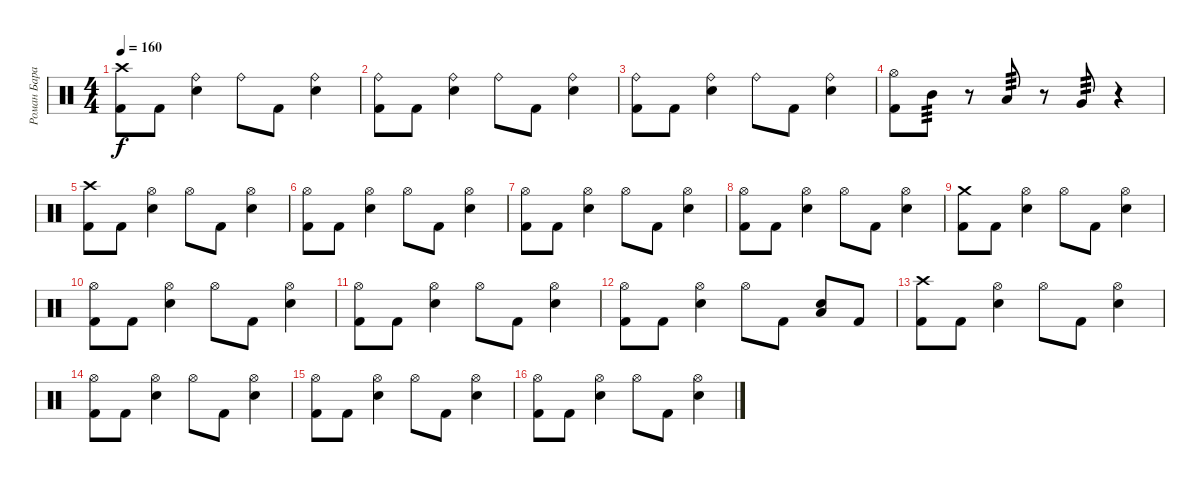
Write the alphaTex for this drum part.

\track ("Роман Баранюк" "Роман Бара") {instrument percussion}
\staff {score}
\articulation defaults
\ts (4 4)
\tempo 160
\clef neutral
\ks c
("Crash high (hit)" "Kick (hit) 2").8{dy f} "Kick (hit) 2".8 ("Ride (bell)" "Snare (hit) 2").4 "Ride (bell)".8 "Kick (hit) 2".8 ("Ride (bell)" "Snare (hit) 2").4 |
("Ride (bell)" "Kick (hit) 2").8 "Kick (hit) 2".8 ("Ride (bell)" "Snare (hit) 2").4 "Ride (bell)".8 "Kick (hit) 2".8 ("Ride (bell)" "Snare (hit) 2").4 |
("Ride (bell)" "Kick (hit) 2").8 "Kick (hit) 2".8 ("Ride (bell)" "Snare (hit) 2").4 "Ride (bell)".8 "Kick (hit) 2".8 ("Ride (bell)" "Snare (hit) 2").4 |
("Hi-Hat (open)" "Kick (hit) 2").8 "Mid Tom (hit)".8{tp 3} r.8 "Low Tom (hit)".8{tp 3} r.8 "Very Low Tom (hit)".8{tp 3} r.4 |
("Crash high (hit)" "Kick (hit) 2").8 "Kick (hit) 2".8 ("Hi-Hat (open)" "Snare (hit) 2").4 "Hi-Hat (open)".8 "Kick (hit) 2".8 ("Hi-Hat (open)" "Snare (hit) 2").4 |
("Hi-Hat (open)" "Kick (hit) 2").8 "Kick (hit) 2".8 ("Hi-Hat (open)" "Snare (hit) 2").4 "Hi-Hat (open)".8 "Kick (hit) 2".8 ("Hi-Hat (open)" "Snare (hit) 2").4 |
("Hi-Hat (open)" "Kick (hit) 2").8 "Kick (hit) 2".8 ("Hi-Hat (open)" "Snare (hit) 2").4 "Hi-Hat (open)".8 "Kick (hit) 2".8 ("Hi-Hat (open)" "Snare (hit) 2").4 |
("Hi-Hat (open)" "Kick (hit) 2").8 "Kick (hit) 2".8 ("Hi-Hat (open)" "Snare (hit) 2").4 "Hi-Hat (open)".8 "Kick (hit) 2".8 ("Hi-Hat (open)" "Snare (hit) 2").4 |
("Crash medium (hit)" "Kick (hit) 2").8 "Kick (hit) 2".8 ("Hi-Hat (open)" "Snare (hit) 2").4 "Hi-Hat (open)".8 "Kick (hit) 2".8 ("Hi-Hat (open)" "Snare (hit) 2").4 |
("Hi-Hat (open)" "Kick (hit) 2").8 "Kick (hit) 2".8 ("Hi-Hat (open)" "Snare (hit) 2").4 "Hi-Hat (open)".8 "Kick (hit) 2".8 ("Hi-Hat (open)" "Snare (hit) 2").4 |
("Hi-Hat (open)" "Kick (hit) 2").8 "Kick (hit) 2".8 ("Hi-Hat (open)" "Snare (hit) 2").4 "Hi-Hat (open)".8 "Kick (hit) 2".8 ("Hi-Hat (open)" "Snare (hit) 2").4 |
("Hi-Hat (open)" "Kick (hit) 2").8 "Kick (hit) 2".8 ("Hi-Hat (open)" "Snare (hit) 2").4 "Hi-Hat (open)".8 "Kick (hit) 2".8 ("Snare (hit) 2" "Low Tom (hit)").8 "Kick (hit) 2".8 |
("Crash high (hit)" "Kick (hit) 2").8 "Kick (hit) 2".8 ("Hi-Hat (open)" "Snare (hit) 2").4 "Hi-Hat (open)".8 "Kick (hit) 2".8 ("Hi-Hat (open)" "Snare (hit) 2").4 |
("Hi-Hat (open)" "Kick (hit) 2").8 "Kick (hit) 2".8 ("Hi-Hat (open)" "Snare (hit) 2").4 "Hi-Hat (open)".8 "Kick (hit) 2".8 ("Hi-Hat (open)" "Snare (hit) 2").4 |
("Hi-Hat (open)" "Kick (hit) 2").8 "Kick (hit) 2".8 ("Hi-Hat (open)" "Snare (hit) 2").4 "Hi-Hat (open)".8 "Kick (hit) 2".8 ("Hi-Hat (open)" "Snare (hit) 2").4 |
("Hi-Hat (open)" "Kick (hit) 2").8 "Kick (hit) 2".8 ("Hi-Hat (open)" "Snare (hit) 2").4 "Hi-Hat (open)".8 "Kick (hit) 2".8 ("Hi-Hat (open)" "Snare (hit) 2").4
